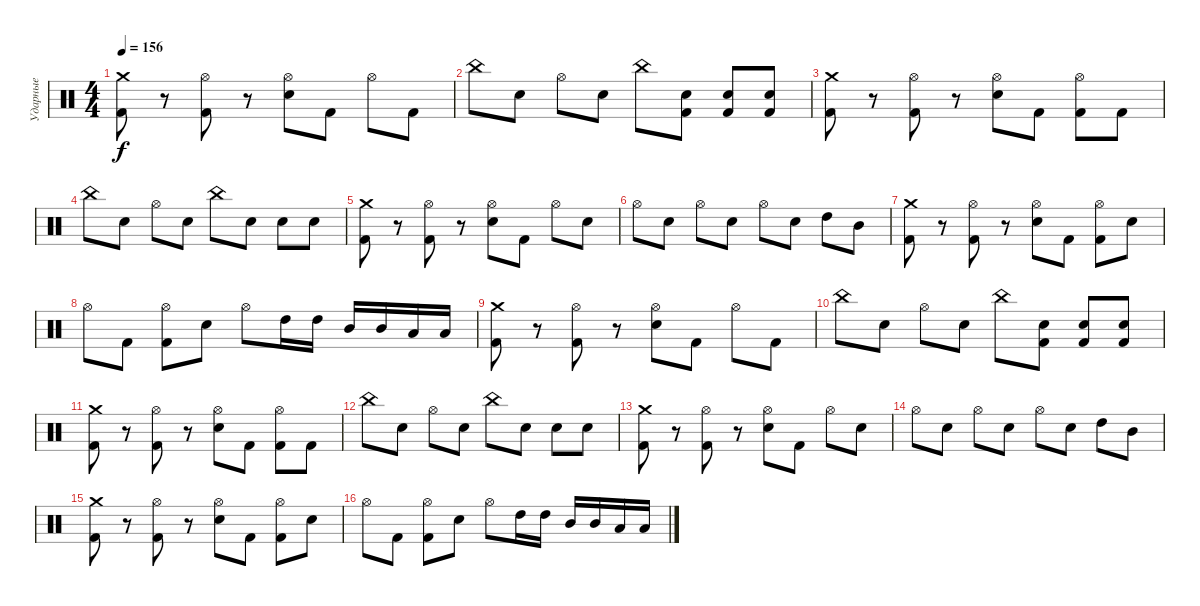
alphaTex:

\track ("Ударные" "Ударные") {instrument percussion}
\staff {score}
\articulation defaults
\ts (4 4)
\tempo 156
\clef neutral
\ks c
("Crash medium (hit)" "Kick (hit) 2").8{dy f} r.8 ("Hi-Hat (open)" "Kick (hit) 2").8 r.8 ("Hi-Hat (open)" "Electric Snare (hit)").8 "Kick (hit) 2".8 "Hi-Hat (open)".8 "Kick (hit) 2".8 |
"China (hit)".8 "Electric Snare (hit)".8 "Hi-Hat (open)".8 "Electric Snare (hit)".8 "China (hit)".8 ("Electric Snare (hit)" "Kick (hit) 2").8 ("Electric Snare (hit)" "Kick (hit) 2").8 ("Electric Snare (hit)" "Kick (hit) 2").8 |
("Crash medium (hit)" "Kick (hit) 2").8 r.8 ("Hi-Hat (open)" "Kick (hit) 2").8 r.8 ("Hi-Hat (open)" "Electric Snare (hit)").8 "Kick (hit) 2".8 ("Hi-Hat (open)" "Kick (hit) 2").8 "Kick (hit) 2".8 |
"China (hit)".8 "Electric Snare (hit)".8 "Hi-Hat (open)".8 "Electric Snare (hit)".8 "China (hit)".8 "Electric Snare (hit)".8 "Electric Snare (hit)".8 "Electric Snare (hit)".8 |
("Crash medium (hit)" "Kick (hit) 2").8 r.8 ("Hi-Hat (open)" "Kick (hit) 2").8 r.8 ("Hi-Hat (open)" "Electric Snare (hit)").8 "Kick (hit) 2".8 "Hi-Hat (open)".8 "Electric Snare (hit)".8 |
"Hi-Hat (open)".8 "Electric Snare (hit)".8 "Hi-Hat (open)".8 "Electric Snare (hit)".8 "Hi-Hat (open)".8 "Electric Snare (hit)".8 "High Tom (hit)".8 "Mid Tom (hit)".8 |
("Crash medium (hit)" "Kick (hit) 2").8 r.8 ("Hi-Hat (open)" "Kick (hit) 2").8 r.8 ("Hi-Hat (open)" "Electric Snare (hit)").8 "Kick (hit) 2".8 ("Hi-Hat (open)" "Kick (hit) 2").8 "Electric Snare (hit)".8 |
"Hi-Hat (open)".8 "Kick (hit) 2".8 ("Hi-Hat (open)" "Kick (hit) 2").8 "Electric Snare (hit)".8 "Hi-Hat (open)".8 "High Tom (hit)".16 "High Tom (hit)".16 "Mid Tom (hit)".16 "Mid Tom (hit)".16 "Low Tom (hit)".16 "Low Tom (hit)".16 |
("Crash medium (hit)" "Kick (hit) 2").8 r.8 ("Hi-Hat (open)" "Kick (hit) 2").8 r.8 ("Hi-Hat (open)" "Electric Snare (hit)").8 "Kick (hit) 2".8 "Hi-Hat (open)".8 "Kick (hit) 2".8 |
"China (hit)".8 "Electric Snare (hit)".8 "Hi-Hat (open)".8 "Electric Snare (hit)".8 "China (hit)".8 ("Electric Snare (hit)" "Kick (hit) 2").8 ("Electric Snare (hit)" "Kick (hit) 2").8 ("Electric Snare (hit)" "Kick (hit) 2").8 |
("Crash medium (hit)" "Kick (hit) 2").8 r.8 ("Hi-Hat (open)" "Kick (hit) 2").8 r.8 ("Hi-Hat (open)" "Electric Snare (hit)").8 "Kick (hit) 2".8 ("Hi-Hat (open)" "Kick (hit) 2").8 "Kick (hit) 2".8 |
"China (hit)".8 "Electric Snare (hit)".8 "Hi-Hat (open)".8 "Electric Snare (hit)".8 "China (hit)".8 "Electric Snare (hit)".8 "Electric Snare (hit)".8 "Electric Snare (hit)".8 |
("Crash medium (hit)" "Kick (hit) 2").8 r.8 ("Hi-Hat (open)" "Kick (hit) 2").8 r.8 ("Hi-Hat (open)" "Electric Snare (hit)").8 "Kick (hit) 2".8 "Hi-Hat (open)".8 "Electric Snare (hit)".8 |
"Hi-Hat (open)".8 "Electric Snare (hit)".8 "Hi-Hat (open)".8 "Electric Snare (hit)".8 "Hi-Hat (open)".8 "Electric Snare (hit)".8 "High Tom (hit)".8 "Mid Tom (hit)".8 |
("Crash medium (hit)" "Kick (hit) 2").8 r.8 ("Hi-Hat (open)" "Kick (hit) 2").8 r.8 ("Hi-Hat (open)" "Electric Snare (hit)").8 "Kick (hit) 2".8 ("Hi-Hat (open)" "Kick (hit) 2").8 "Electric Snare (hit)".8 |
"Hi-Hat (open)".8 "Kick (hit) 2".8 ("Hi-Hat (open)" "Kick (hit) 2").8 "Electric Snare (hit)".8 "Hi-Hat (open)".8 "High Tom (hit)".16 "High Tom (hit)".16 "Mid Tom (hit)".16 "Mid Tom (hit)".16 "Low Tom (hit)".16 "Low Tom (hit)".16
